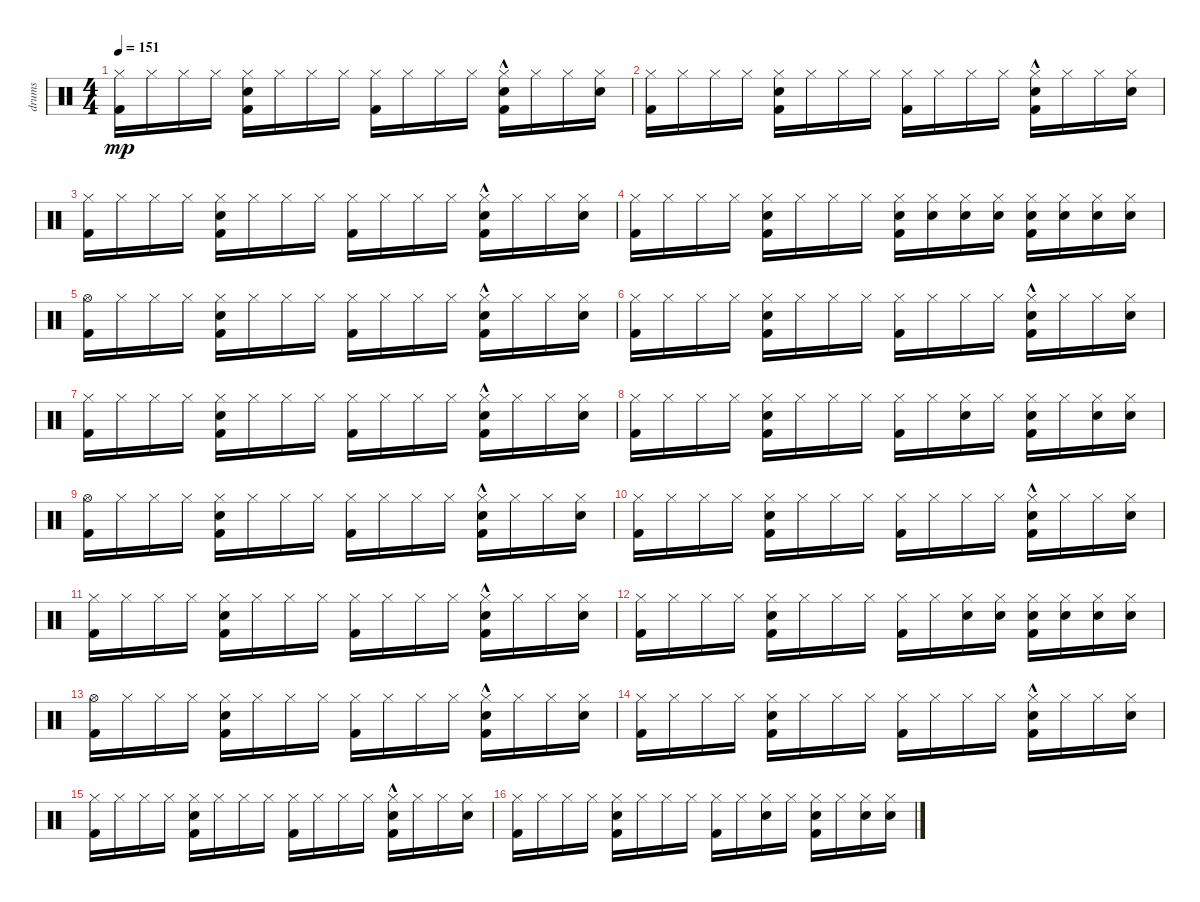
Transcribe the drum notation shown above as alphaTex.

\track ("drums" "drums") {instrument percussion}
\staff {score}
\articulation defaults
\ts (4 4)
\tempo 151
\clef neutral
\ks c
("Hi-Hat (closed)" "Kick (hit) 2").16{dy mp} "Hi-Hat (closed)".16 "Hi-Hat (closed)".16 "Hi-Hat (closed)".16 ("Hi-Hat (closed)" "Kick (hit) 2" "Snare (hit) 2").16 "Hi-Hat (closed)".16 "Hi-Hat (closed)".16 "Hi-Hat (closed)".16 ("Hi-Hat (closed)" "Kick (hit) 2").16 "Hi-Hat (closed)".16 "Hi-Hat (closed)".16 "Hi-Hat (closed)".16 ("Hi-Hat (closed)" "Kick (hit) 2"{hac} "Snare (hit) 2"{hac}).16 "Hi-Hat (closed)".16 "Hi-Hat (closed)".16 ("Hi-Hat (closed)" "Snare (hit) 2").16 |
("Hi-Hat (closed)" "Kick (hit) 2").16 "Hi-Hat (closed)".16 "Hi-Hat (closed)".16 "Hi-Hat (closed)".16 ("Hi-Hat (closed)" "Kick (hit) 2" "Snare (hit) 2").16 "Hi-Hat (closed)".16 "Hi-Hat (closed)".16 "Hi-Hat (closed)".16 ("Hi-Hat (closed)" "Kick (hit) 2").16 "Hi-Hat (closed)".16 "Hi-Hat (closed)".16 "Hi-Hat (closed)".16 ("Hi-Hat (closed)" "Kick (hit) 2"{hac} "Snare (hit) 2"{hac}).16 "Hi-Hat (closed)".16 "Hi-Hat (closed)".16 ("Hi-Hat (closed)" "Snare (hit) 2").16 |
("Hi-Hat (closed)" "Kick (hit) 2").16 "Hi-Hat (closed)".16 "Hi-Hat (closed)".16 "Hi-Hat (closed)".16 ("Hi-Hat (closed)" "Kick (hit) 2" "Snare (hit) 2").16 "Hi-Hat (closed)".16 "Hi-Hat (closed)".16 "Hi-Hat (closed)".16 ("Hi-Hat (closed)" "Kick (hit) 2").16 "Hi-Hat (closed)".16 "Hi-Hat (closed)".16 "Hi-Hat (closed)".16 ("Hi-Hat (closed)" "Kick (hit) 2"{hac} "Snare (hit) 2"{hac}).16 "Hi-Hat (closed)".16 "Hi-Hat (closed)".16 ("Hi-Hat (closed)" "Snare (hit) 2").16 |
("Hi-Hat (closed)" "Kick (hit) 2").16 "Hi-Hat (closed)".16 "Hi-Hat (closed)".16 "Hi-Hat (closed)".16 ("Hi-Hat (closed)" "Kick (hit) 2" "Snare (hit) 2").16 "Hi-Hat (closed)".16 "Hi-Hat (closed)".16 "Hi-Hat (closed)".16 ("Hi-Hat (closed)" "Kick (hit) 2" "Snare (hit) 2").16 ("Hi-Hat (closed)" "Snare (hit) 2").16 ("Hi-Hat (closed)" "Snare (hit) 2").16 ("Hi-Hat (closed)" "Snare (hit) 2").16 ("Hi-Hat (closed)" "Kick (hit) 2" "Snare (hit) 2").16 ("Hi-Hat (closed)" "Snare (hit) 2").16 ("Hi-Hat (closed)" "Snare (hit) 2").16 ("Hi-Hat (closed)" "Snare (hit) 2").16 |
("Hi-Hat (open)" "Kick (hit) 2").16 "Hi-Hat (closed)".16 "Hi-Hat (closed)".16 "Hi-Hat (closed)".16 ("Hi-Hat (closed)" "Kick (hit) 2" "Snare (hit) 2").16 "Hi-Hat (closed)".16 "Hi-Hat (closed)".16 "Hi-Hat (closed)".16 ("Hi-Hat (closed)" "Kick (hit) 2").16 "Hi-Hat (closed)".16 "Hi-Hat (closed)".16 "Hi-Hat (closed)".16 ("Hi-Hat (closed)" "Kick (hit) 2"{hac} "Snare (hit) 2"{hac}).16 "Hi-Hat (closed)".16 "Hi-Hat (closed)".16 ("Hi-Hat (closed)" "Snare (hit) 2").16 |
("Hi-Hat (closed)" "Kick (hit) 2").16 "Hi-Hat (closed)".16 "Hi-Hat (closed)".16 "Hi-Hat (closed)".16 ("Hi-Hat (closed)" "Kick (hit) 2" "Snare (hit) 2").16 "Hi-Hat (closed)".16 "Hi-Hat (closed)".16 "Hi-Hat (closed)".16 ("Hi-Hat (closed)" "Kick (hit) 2").16 "Hi-Hat (closed)".16 "Hi-Hat (closed)".16 "Hi-Hat (closed)".16 ("Hi-Hat (closed)" "Kick (hit) 2"{hac} "Snare (hit) 2"{hac}).16 "Hi-Hat (closed)".16 "Hi-Hat (closed)".16 ("Hi-Hat (closed)" "Snare (hit) 2").16 |
("Hi-Hat (closed)" "Kick (hit) 2").16 "Hi-Hat (closed)".16 "Hi-Hat (closed)".16 "Hi-Hat (closed)".16 ("Hi-Hat (closed)" "Kick (hit) 2" "Snare (hit) 2").16 "Hi-Hat (closed)".16 "Hi-Hat (closed)".16 "Hi-Hat (closed)".16 ("Hi-Hat (closed)" "Kick (hit) 2").16 "Hi-Hat (closed)".16 "Hi-Hat (closed)".16 "Hi-Hat (closed)".16 ("Hi-Hat (closed)" "Kick (hit) 2"{hac} "Snare (hit) 2"{hac}).16 "Hi-Hat (closed)".16 "Hi-Hat (closed)".16 ("Hi-Hat (closed)" "Snare (hit) 2").16 |
("Hi-Hat (closed)" "Kick (hit) 2").16 "Hi-Hat (closed)".16 "Hi-Hat (closed)".16 "Hi-Hat (closed)".16 ("Hi-Hat (closed)" "Kick (hit) 2" "Snare (hit) 2").16 "Hi-Hat (closed)".16 "Hi-Hat (closed)".16 "Hi-Hat (closed)".16 ("Hi-Hat (closed)" "Kick (hit) 2").16 "Hi-Hat (closed)".16 ("Hi-Hat (closed)" "Snare (hit) 2").16 "Hi-Hat (closed)".16 ("Hi-Hat (closed)" "Kick (hit) 2" "Snare (hit) 2").16 "Hi-Hat (closed)".16 ("Hi-Hat (closed)" "Snare (hit) 2").16 ("Hi-Hat (closed)" "Snare (hit) 2").16 |
("Hi-Hat (open)" "Kick (hit) 2").16 "Hi-Hat (closed)".16 "Hi-Hat (closed)".16 "Hi-Hat (closed)".16 ("Hi-Hat (closed)" "Kick (hit) 2" "Snare (hit) 2").16 "Hi-Hat (closed)".16 "Hi-Hat (closed)".16 "Hi-Hat (closed)".16 ("Hi-Hat (closed)" "Kick (hit) 2").16 "Hi-Hat (closed)".16 "Hi-Hat (closed)".16 "Hi-Hat (closed)".16 ("Hi-Hat (closed)" "Kick (hit) 2"{hac} "Snare (hit) 2"{hac}).16 "Hi-Hat (closed)".16 "Hi-Hat (closed)".16 ("Hi-Hat (closed)" "Snare (hit) 2").16 |
("Hi-Hat (closed)" "Kick (hit) 2").16 "Hi-Hat (closed)".16 "Hi-Hat (closed)".16 "Hi-Hat (closed)".16 ("Hi-Hat (closed)" "Kick (hit) 2" "Snare (hit) 2").16 "Hi-Hat (closed)".16 "Hi-Hat (closed)".16 "Hi-Hat (closed)".16 ("Hi-Hat (closed)" "Kick (hit) 2").16 "Hi-Hat (closed)".16 "Hi-Hat (closed)".16 "Hi-Hat (closed)".16 ("Hi-Hat (closed)" "Kick (hit) 2"{hac} "Snare (hit) 2"{hac}).16 "Hi-Hat (closed)".16 "Hi-Hat (closed)".16 ("Hi-Hat (closed)" "Snare (hit) 2").16 |
("Hi-Hat (closed)" "Kick (hit) 2").16 "Hi-Hat (closed)".16 "Hi-Hat (closed)".16 "Hi-Hat (closed)".16 ("Hi-Hat (closed)" "Kick (hit) 2" "Snare (hit) 2").16 "Hi-Hat (closed)".16 "Hi-Hat (closed)".16 "Hi-Hat (closed)".16 ("Hi-Hat (closed)" "Kick (hit) 2").16 "Hi-Hat (closed)".16 "Hi-Hat (closed)".16 "Hi-Hat (closed)".16 ("Hi-Hat (closed)" "Kick (hit) 2"{hac} "Snare (hit) 2"{hac}).16 "Hi-Hat (closed)".16 "Hi-Hat (closed)".16 ("Hi-Hat (closed)" "Snare (hit) 2").16 |
("Hi-Hat (closed)" "Kick (hit) 2").16 "Hi-Hat (closed)".16 "Hi-Hat (closed)".16 "Hi-Hat (closed)".16 ("Hi-Hat (closed)" "Kick (hit) 2" "Snare (hit) 2").16 "Hi-Hat (closed)".16 "Hi-Hat (closed)".16 "Hi-Hat (closed)".16 ("Hi-Hat (closed)" "Kick (hit) 2").16 "Hi-Hat (closed)".16 ("Hi-Hat (closed)" "Snare (hit) 2").16 ("Hi-Hat (closed)" "Snare (hit) 2").16 ("Hi-Hat (closed)" "Kick (hit) 2" "Snare (hit) 2").16 ("Hi-Hat (closed)" "Snare (hit) 2").16 ("Hi-Hat (closed)" "Snare (hit) 2").16 ("Hi-Hat (closed)" "Snare (hit) 2").16 |
("Hi-Hat (open)" "Kick (hit) 2").16 "Hi-Hat (closed)".16 "Hi-Hat (closed)".16 "Hi-Hat (closed)".16 ("Hi-Hat (closed)" "Kick (hit) 2" "Snare (hit) 2").16 "Hi-Hat (closed)".16 "Hi-Hat (closed)".16 "Hi-Hat (closed)".16 ("Hi-Hat (closed)" "Kick (hit) 2").16 "Hi-Hat (closed)".16 "Hi-Hat (closed)".16 "Hi-Hat (closed)".16 ("Hi-Hat (closed)" "Kick (hit) 2"{hac} "Snare (hit) 2"{hac}).16 "Hi-Hat (closed)".16 "Hi-Hat (closed)".16 ("Hi-Hat (closed)" "Snare (hit) 2").16 |
("Hi-Hat (closed)" "Kick (hit) 2").16 "Hi-Hat (closed)".16 "Hi-Hat (closed)".16 "Hi-Hat (closed)".16 ("Hi-Hat (closed)" "Kick (hit) 2" "Snare (hit) 2").16 "Hi-Hat (closed)".16 "Hi-Hat (closed)".16 "Hi-Hat (closed)".16 ("Hi-Hat (closed)" "Kick (hit) 2").16 "Hi-Hat (closed)".16 "Hi-Hat (closed)".16 "Hi-Hat (closed)".16 ("Hi-Hat (closed)" "Kick (hit) 2"{hac} "Snare (hit) 2"{hac}).16 "Hi-Hat (closed)".16 "Hi-Hat (closed)".16 ("Hi-Hat (closed)" "Snare (hit) 2").16 |
("Hi-Hat (closed)" "Kick (hit) 2").16 "Hi-Hat (closed)".16 "Hi-Hat (closed)".16 "Hi-Hat (closed)".16 ("Hi-Hat (closed)" "Kick (hit) 2" "Snare (hit) 2").16 "Hi-Hat (closed)".16 "Hi-Hat (closed)".16 "Hi-Hat (closed)".16 ("Hi-Hat (closed)" "Kick (hit) 2").16 "Hi-Hat (closed)".16 "Hi-Hat (closed)".16 "Hi-Hat (closed)".16 ("Hi-Hat (closed)" "Kick (hit) 2"{hac} "Snare (hit) 2"{hac}).16 "Hi-Hat (closed)".16 "Hi-Hat (closed)".16 ("Hi-Hat (closed)" "Snare (hit) 2").16 |
("Hi-Hat (closed)" "Kick (hit) 2").16 "Hi-Hat (closed)".16 "Hi-Hat (closed)".16 "Hi-Hat (closed)".16 ("Hi-Hat (closed)" "Kick (hit) 2" "Snare (hit) 2").16 "Hi-Hat (closed)".16 "Hi-Hat (closed)".16 "Hi-Hat (closed)".16 ("Hi-Hat (closed)" "Kick (hit) 2").16 "Hi-Hat (closed)".16 ("Hi-Hat (closed)" "Snare (hit) 2").16 "Hi-Hat (closed)".16 ("Hi-Hat (closed)" "Kick (hit) 2" "Snare (hit) 2").16 "Hi-Hat (closed)".16 ("Hi-Hat (closed)" "Snare (hit) 2").16 ("Hi-Hat (closed)" "Snare (hit) 2").16
